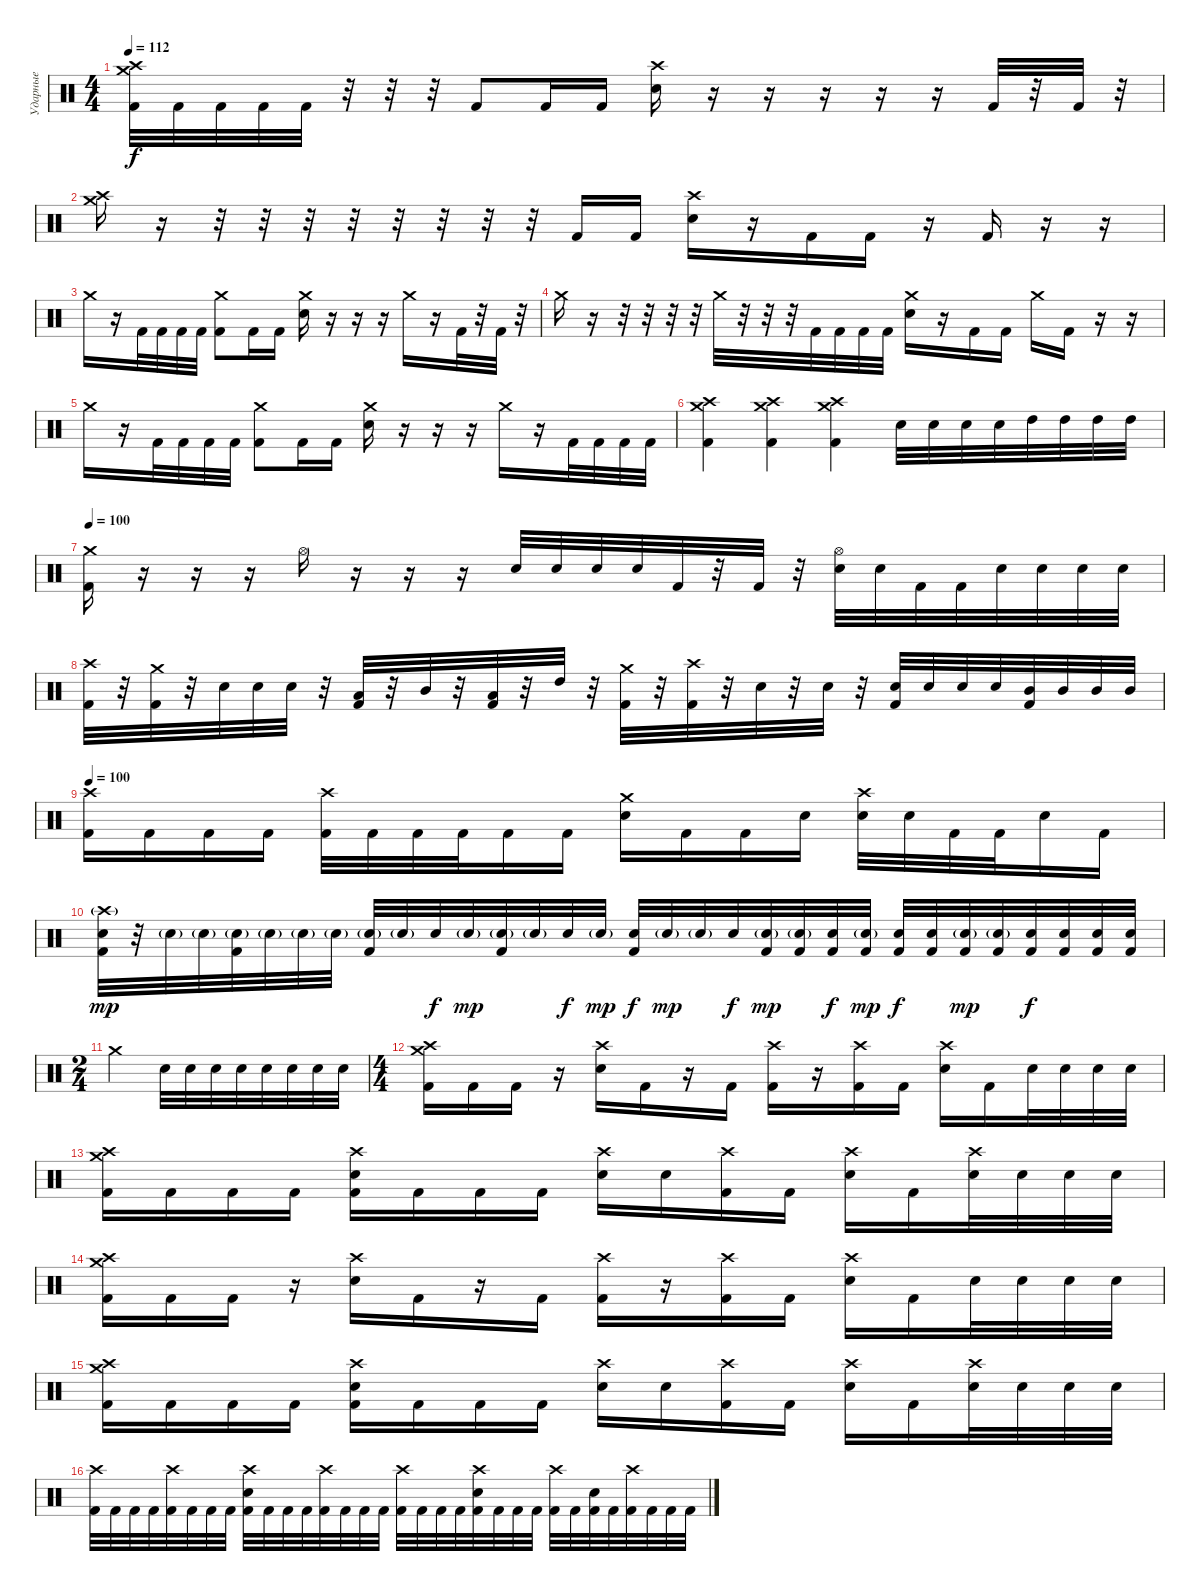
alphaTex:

\track ("Ударные" "Ударные") {instrument percussion}
\staff {score}
\articulation defaults
\ts (4 4)
\tempo 112
\clef neutral
\ks c
("Crash high (hit)" "Crash medium (hit)" "Kick (hit) 2").32{dy f} "Kick (hit) 2".32 "Kick (hit) 2".32 "Kick (hit) 2".32 "Kick (hit) 2".32 r.32 r.32 r.32 "Kick (hit) 2".8 "Kick (hit) 2".16 "Kick (hit) 2".16 ("Crash high (hit)" "Electric Snare (hit)").16 r.16 r.16 r.16 r.16 r.16 "Kick (hit) 2".32 r.32 "Kick (hit) 2".32 r.32 |
("Crash high (hit)" "Crash medium (hit)").16 r.16 r.32 r.32 r.32 r.32 r.32 r.32 r.32 r.32 "Kick (hit) 2".16 "Kick (hit) 2".16 ("Crash high (hit)" "Electric Snare (hit)").16 r.16 "Kick (hit) 2".16 "Kick (hit) 2".16 r.16 "Kick (hit) 2".16 r.16 r.16 |
"Crash medium (hit)".16 r.16 "Kick (hit) 2".32 "Kick (hit) 2".32 "Kick (hit) 2".32 "Kick (hit) 2".32 ("Crash medium (hit)" "Kick (hit) 2").8 "Kick (hit) 2".16 "Kick (hit) 2".16 ("Crash medium (hit)" "Electric Snare (hit)").16 r.16 r.16 r.16 "Crash medium (hit)".16 r.16 "Kick (hit) 2".32 r.32 "Kick (hit) 2".32 r.32 |
"Crash medium (hit)".16 r.16 r.32 r.32 r.32 r.32 "Crash medium (hit)".32 r.32 r.32 r.32 "Kick (hit) 2".32 "Kick (hit) 2".32 "Kick (hit) 2".32 "Kick (hit) 2".32 ("Crash medium (hit)" "Electric Snare (hit)").16 r.16 "Kick (hit) 2".16 "Kick (hit) 2".16 "Crash medium (hit)".16 "Kick (hit) 2".16 r.16 r.16 |
"Crash medium (hit)".16 r.16 "Kick (hit) 2".32 "Kick (hit) 2".32 "Kick (hit) 2".32 "Kick (hit) 2".32 ("Crash medium (hit)" "Kick (hit) 2").8 "Kick (hit) 2".16 "Kick (hit) 2".16 ("Crash medium (hit)" "Electric Snare (hit)").16 r.16 r.16 r.16 "Crash medium (hit)".16 r.16 "Kick (hit) 2".32 "Kick (hit) 2".32 "Kick (hit) 2".32 "Kick (hit) 2".32 |
("Crash high (hit)" "Crash medium (hit)" "Kick (hit) 2").4 ("Crash medium (hit)" "Crash high (hit)" "Kick (hit) 2").4 ("Crash medium (hit)" "Crash high (hit)" "Kick (hit) 2").4 "Electric Snare (hit)".32 "Electric Snare (hit)".32 "Electric Snare (hit)".32 "Electric Snare (hit)".32 "High Tom (hit)".32 "High Tom (hit)".32 "High Tom (hit)".32 "High Tom (hit)".32 |
\tempo 100
("Crash medium (hit)" "Kick (hit) 2").16 r.16 r.16 r.16 "Hi-Hat (open)".16 r.16 r.16 r.16 "Electric Snare (hit)".32 "Electric Snare (hit)".32 "Electric Snare (hit)".32 "Electric Snare (hit)".32 "Kick (hit) 2".32 r.32 "Kick (hit) 2".32 r.32 ("Hi-Hat (open)" "Electric Snare (hit)").32 "Electric Snare (hit)".32 "Kick (hit) 2".32 "Kick (hit) 2".32 "Electric Snare (hit)".32 "Electric Snare (hit)".32 "Electric Snare (hit)".32 "Electric Snare (hit)".32 |
("Crash high (hit)" "Kick (hit) 2").32 r.32 ("Crash medium (hit)" "Kick (hit) 2").32 r.32 "Electric Snare (hit)".32 "Electric Snare (hit)".32 "Electric Snare (hit)".32 r.32 ("Low Tom (hit)" "Kick (hit) 2").32 r.32 "Mid Tom (hit)".32 r.32 ("Low Tom (hit)" "Kick (hit) 2").32 r.32 "High Tom (hit)".32 r.32 ("Crash medium (hit)" "Kick (hit) 2").32 r.32 ("Crash high (hit)" "Kick (hit) 2").32 r.32 "Electric Snare (hit)".32 r.32 "Electric Snare (hit)".32 r.32 ("Electric Snare (hit)" "Kick (hit) 2").32 "Electric Snare (hit)".32 "Electric Snare (hit)".32 "Electric Snare (hit)".32 ("Mid Tom (hit)" "Kick (hit) 2").32 "Mid Tom (hit)".32 "Mid Tom (hit)".32 "Mid Tom (hit)".32 |
\tempo 100
("Crash high (hit)" "Kick (hit) 2").16 "Kick (hit) 2".16 "Kick (hit) 2".16 "Kick (hit) 2".16 ("Crash high (hit)" "Kick (hit) 2").32 "Kick (hit) 2".32 "Kick (hit) 2".32 "Kick (hit) 2".32 "Kick (hit) 2".16 "Kick (hit) 2".16 ("Crash medium (hit)" "Electric Snare (hit)").16 "Kick (hit) 2".16 "Kick (hit) 2".16 "Electric Snare (hit)".16 ("Crash high (hit)" "Electric Snare (hit)").32 "Electric Snare (hit)".32 "Kick (hit) 2".32 "Kick (hit) 2".32 "Electric Snare (hit)".16 "Kick (hit) 2".16 |
("Crash high (hit)"{g} "Electric Snare (hit)" "Kick (hit) 2").32{dy mp} r.32 "Electric Snare (hit)"{g}.32 "Electric Snare (hit)"{g}.32 ("Electric Snare (hit)"{g} "Kick (hit) 2").32 "Electric Snare (hit)"{g}.32 "Electric Snare (hit)"{g}.32 "Electric Snare (hit)"{g}.32 ("Electric Snare (hit)"{g} "Kick (hit) 2").32 "Electric Snare (hit)"{g}.32 "Electric Snare (hit)".32{dy f} "Electric Snare (hit)"{g}.32{dy mp} ("Electric Snare (hit)"{g} "Kick (hit) 2").32 "Electric Snare (hit)"{g}.32 "Electric Snare (hit)".32{dy f} "Electric Snare (hit)"{g}.32{dy mp} ("Electric Snare (hit)" "Kick (hit) 2").32{dy f} "Electric Snare (hit)"{g}.32{dy mp} "Electric Snare (hit)"{g}.32 "Electric Snare (hit)".32{dy f} ("Electric Snare (hit)"{g} "Kick (hit) 2").32{dy mp} ("Electric Snare (hit)"{g} "Kick (hit) 2").32 ("Electric Snare (hit)" "Kick (hit) 2").32{dy f} ("Electric Snare (hit)"{g} "Kick (hit) 2").32{dy mp} ("Electric Snare (hit)" "Kick (hit) 2").32{dy f} ("Electric Snare (hit)" "Kick (hit) 2").32 ("Electric Snare (hit)"{g} "Kick (hit) 2").32{dy mp} ("Electric Snare (hit)"{g} "Kick (hit) 2").32 ("Electric Snare (hit)" "Kick (hit) 2").32{dy f} ("Electric Snare (hit)" "Kick (hit) 2").32 ("Electric Snare (hit)" "Kick (hit) 2").32 ("Electric Snare (hit)" "Kick (hit) 2").32 |
\ts (2 4)
"Crash medium (hit)".4{volume 0} "Electric Snare (hit)".32{volume 14} "Electric Snare (hit)".32 "Electric Snare (hit)".32 "Electric Snare (hit)".32 "Electric Snare (hit)".32 "Electric Snare (hit)".32 "Electric Snare (hit)".32 "Electric Snare (hit)".32 |
\ts (4 4)
("Crash medium (hit)" "Crash high (hit)" "Kick (hit) 2").16 "Kick (hit) 2".16 "Kick (hit) 2".16 r.16 ("Crash high (hit)" "Electric Snare (hit)").16 "Kick (hit) 2".16 r.16 "Kick (hit) 2".16 ("Crash high (hit)" "Kick (hit) 2").16 r.16 ("Crash high (hit)" "Kick (hit) 2").16 "Kick (hit) 2".16 ("Crash high (hit)" "Electric Snare (hit)").16 "Kick (hit) 2".16 "Electric Snare (hit)".32 "Electric Snare (hit)".32 "Electric Snare (hit)".32 "Electric Snare (hit)".32 |
("Crash medium (hit)" "Crash high (hit)" "Kick (hit) 2").16 "Kick (hit) 2".16 "Kick (hit) 2".16 "Kick (hit) 2".16 ("Crash high (hit)" "Electric Snare (hit)" "Kick (hit) 2").16 "Kick (hit) 2".16 "Kick (hit) 2".16 "Kick (hit) 2".16 ("Crash high (hit)" "Electric Snare (hit)").16 "Electric Snare (hit)".16 ("Crash high (hit)" "Kick (hit) 2").16 "Kick (hit) 2".16 ("Crash high (hit)" "Electric Snare (hit)").16 "Kick (hit) 2".16 ("Crash high (hit)" "Electric Snare (hit)").32 "Electric Snare (hit)".32 "Electric Snare (hit)".32 "Electric Snare (hit)".32 |
("Crash medium (hit)" "Crash high (hit)" "Kick (hit) 2").16 "Kick (hit) 2".16 "Kick (hit) 2".16 r.16 ("Crash high (hit)" "Electric Snare (hit)").16 "Kick (hit) 2".16 r.16 "Kick (hit) 2".16 ("Crash high (hit)" "Kick (hit) 2").16 r.16 ("Crash high (hit)" "Kick (hit) 2").16 "Kick (hit) 2".16 ("Crash high (hit)" "Electric Snare (hit)").16 "Kick (hit) 2".16 "Electric Snare (hit)".32 "Electric Snare (hit)".32 "Electric Snare (hit)".32 "Electric Snare (hit)".32 |
("Crash medium (hit)" "Crash high (hit)" "Kick (hit) 2").16 "Kick (hit) 2".16 "Kick (hit) 2".16 "Kick (hit) 2".16 ("Crash high (hit)" "Electric Snare (hit)" "Kick (hit) 2").16 "Kick (hit) 2".16 "Kick (hit) 2".16 "Kick (hit) 2".16 ("Crash high (hit)" "Electric Snare (hit)").16 "Electric Snare (hit)".16 ("Crash high (hit)" "Kick (hit) 2").16 "Kick (hit) 2".16 ("Crash high (hit)" "Electric Snare (hit)").16 "Kick (hit) 2".16 ("Crash high (hit)" "Electric Snare (hit)").32 "Electric Snare (hit)".32 "Electric Snare (hit)".32 "Electric Snare (hit)".32 |
("Crash high (hit)" "Kick (hit) 2").32 "Kick (hit) 2".32 "Kick (hit) 2".32 "Kick (hit) 2".32 ("Crash high (hit)" "Kick (hit) 2").32 "Kick (hit) 2".32 "Kick (hit) 2".32 "Kick (hit) 2".32 ("Crash high (hit)" "Electric Snare (hit)" "Kick (hit) 2").32 "Kick (hit) 2".32 "Kick (hit) 2".32 "Kick (hit) 2".32 ("Crash high (hit)" "Kick (hit) 2").32 "Kick (hit) 2".32 "Kick (hit) 2".32 "Kick (hit) 2".32 ("Crash high (hit)" "Kick (hit) 2").32 "Kick (hit) 2".32 "Kick (hit) 2".32 "Kick (hit) 2".32 ("Crash high (hit)" "Electric Snare (hit)" "Kick (hit) 2").32 "Kick (hit) 2".32 "Kick (hit) 2".32 "Kick (hit) 2".32 ("Crash high (hit)" "Kick (hit) 2").32 "Kick (hit) 2".32 ("Electric Snare (hit)" "Kick (hit) 2").32 "Kick (hit) 2".32 ("Crash high (hit)" "Kick (hit) 2").32 "Kick (hit) 2".32 "Kick (hit) 2".32 "Kick (hit) 2".32
